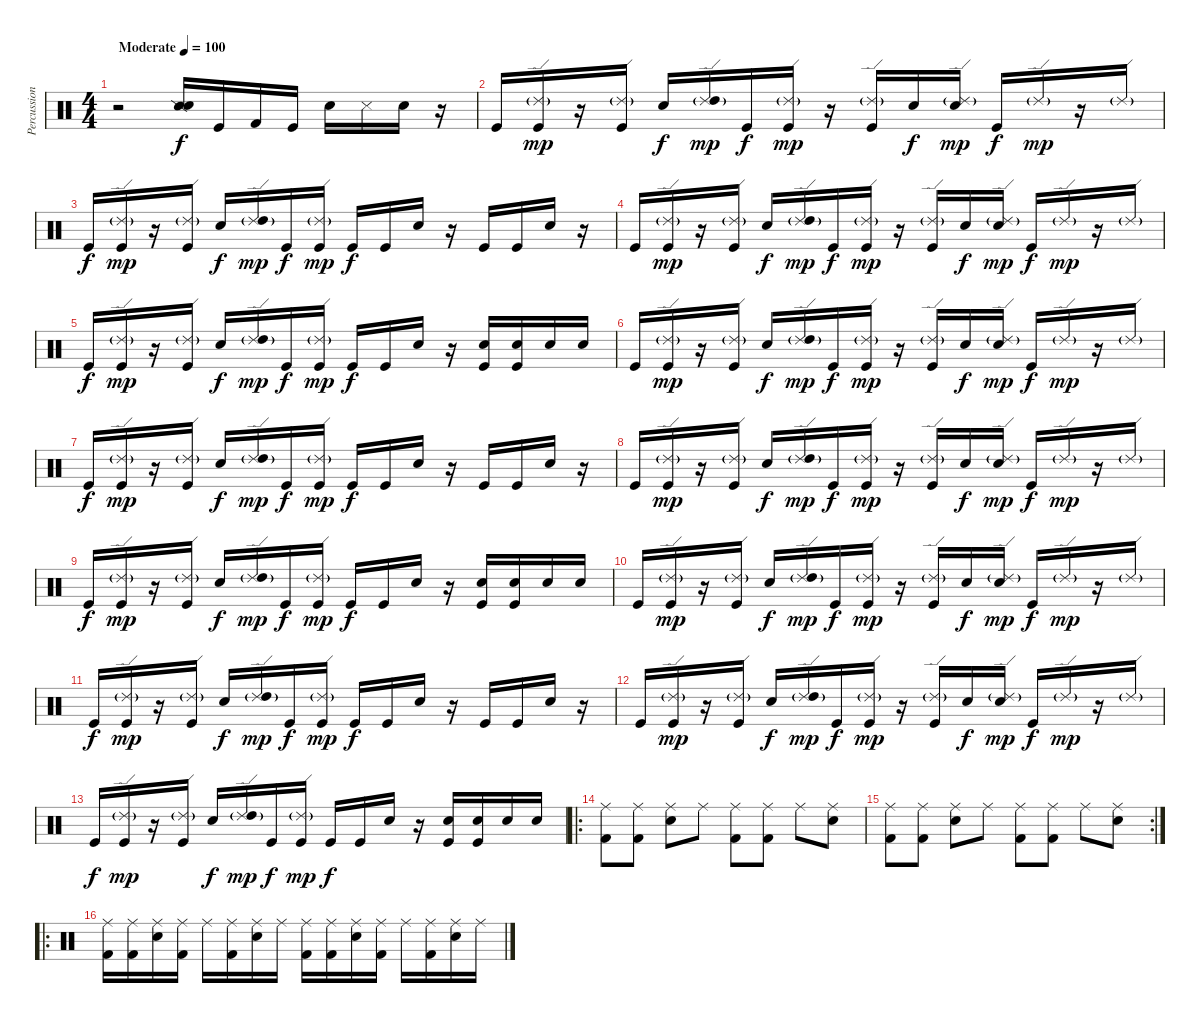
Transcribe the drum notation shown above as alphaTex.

\track ("Percussions" "Percussion") {instrument percussion}
\staff {score}
\articulation defaults
\ts (4 4)
\tempo (100 "Moderate")
\clef neutral
\ks c
r.2{dy f volume 7} ("Snare (side stick) 2" "Snare (hit) 2").16 "Kick (hit)".16 "Kick (hit) 2".16 "Kick (hit)".16 "Snare (hit) 2".16 "Snare (side stick) 3".16 "Hand Clap (hit)".16 r.16 |
"Kick (hit)".16 ("Ride (edge) 2"{g} "Kick (hit)").16{dy mp} r.16 ("Ride (edge) 2"{g} "Kick (hit)").16 "Snare (hit) 2".16{dy f} ("Ride (edge) 2"{g} "High Tom (hit)").16{dy mp} "Kick (hit)".16{dy f} ("Ride (edge) 2"{g} "Kick (hit)").16{dy mp} r.16 ("Ride (edge) 2"{g} "Kick (hit)").16 "Snare (hit) 2".16{dy f} ("Ride (edge) 2"{g} "Snare (hit) 2").16{dy mp} "Kick (hit)".16{dy f} "Ride (edge) 2"{g}.16{dy mp} r.16 "Ride (edge) 2"{g}.16 |
"Kick (hit)".16{dy f} ("Ride (edge) 2"{g} "Kick (hit)").16{dy mp} r.16 ("Ride (edge) 2"{g} "Kick (hit)").16 "Snare (hit) 2".16{dy f} ("Ride (edge) 2"{g} "High Tom (hit)").16{dy mp} "Kick (hit)".16{dy f} ("Ride (edge) 2"{g} "Kick (hit)").16{dy mp} "Kick (hit)".16{dy f} "Kick (hit)".16 "Snare (hit) 2".16 r.16 "Kick (hit)".16 "Kick (hit)".16 "Snare (hit) 2".16 r.16 |
"Kick (hit)".16 ("Ride (edge) 2"{g} "Kick (hit)").16{dy mp} r.16 ("Ride (edge) 2"{g} "Kick (hit)").16 "Snare (hit) 2".16{dy f} ("Ride (edge) 2"{g} "High Tom (hit)").16{dy mp} "Kick (hit)".16{dy f} ("Ride (edge) 2"{g} "Kick (hit)").16{dy mp} r.16 ("Ride (edge) 2"{g} "Kick (hit)").16 "Snare (hit) 2".16{dy f} ("Ride (edge) 2"{g} "Snare (hit) 2").16{dy mp} "Kick (hit)".16{dy f} "Ride (edge) 2"{g}.16{dy mp} r.16 "Ride (edge) 2"{g}.16 |
"Kick (hit)".16{dy f} ("Ride (edge) 2"{g} "Kick (hit)").16{dy mp} r.16 ("Ride (edge) 2"{g} "Kick (hit)").16 "Snare (hit) 2".16{dy f} ("Ride (edge) 2"{g} "High Tom (hit)").16{dy mp} "Kick (hit)".16{dy f} ("Ride (edge) 2"{g} "Kick (hit)").16{dy mp} "Kick (hit)".16{dy f} "Kick (hit)".16 "Snare (hit) 2".16 r.16 ("Electric Snare (hit)" "Kick (hit)").16 ("Electric Snare (hit)" "Kick (hit)").16 "Electric Snare (hit)".16 "Electric Snare (hit)".16 |
"Kick (hit)".16{volume 16} ("Ride (edge) 2"{g} "Kick (hit)").16{dy mp} r.16 ("Ride (edge) 2"{g} "Kick (hit)").16 "Snare (hit) 2".16{dy f} ("Ride (edge) 2"{g} "High Tom (hit)").16{dy mp} "Kick (hit)".16{dy f} ("Ride (edge) 2"{g} "Kick (hit)").16{dy mp} r.16 ("Ride (edge) 2"{g} "Kick (hit)").16 "Snare (hit) 2".16{dy f} ("Ride (edge) 2"{g} "Snare (hit) 2").16{dy mp} "Kick (hit)".16{dy f} "Ride (edge) 2"{g}.16{dy mp} r.16 "Ride (edge) 2"{g}.16 |
"Kick (hit)".16{dy f} ("Ride (edge) 2"{g} "Kick (hit)").16{dy mp} r.16 ("Ride (edge) 2"{g} "Kick (hit)").16 "Snare (hit) 2".16{dy f} ("Ride (edge) 2"{g} "High Tom (hit)").16{dy mp} "Kick (hit)".16{dy f} ("Ride (edge) 2"{g} "Kick (hit)").16{dy mp} "Kick (hit)".16{dy f} "Kick (hit)".16 "Snare (hit) 2".16 r.16 "Kick (hit)".16 "Kick (hit)".16 "Snare (hit) 2".16 r.16 |
"Kick (hit)".16 ("Ride (edge) 2"{g} "Kick (hit)").16{dy mp} r.16 ("Ride (edge) 2"{g} "Kick (hit)").16 "Snare (hit) 2".16{dy f} ("Ride (edge) 2"{g} "High Tom (hit)").16{dy mp} "Kick (hit)".16{dy f} ("Ride (edge) 2"{g} "Kick (hit)").16{dy mp} r.16 ("Ride (edge) 2"{g} "Kick (hit)").16 "Snare (hit) 2".16{dy f} ("Ride (edge) 2"{g} "Snare (hit) 2").16{dy mp} "Kick (hit)".16{dy f} "Ride (edge) 2"{g}.16{dy mp} r.16 "Ride (edge) 2"{g}.16 |
"Kick (hit)".16{dy f} ("Ride (edge) 2"{g} "Kick (hit)").16{dy mp} r.16 ("Ride (edge) 2"{g} "Kick (hit)").16 "Snare (hit) 2".16{dy f} ("Ride (edge) 2"{g} "High Tom (hit)").16{dy mp} "Kick (hit)".16{dy f} ("Ride (edge) 2"{g} "Kick (hit)").16{dy mp} "Kick (hit)".16{dy f} "Kick (hit)".16 "Snare (hit) 2".16 r.16 ("Electric Snare (hit)" "Kick (hit)").16 ("Electric Snare (hit)" "Kick (hit)").16 "Electric Snare (hit)".16 "Electric Snare (hit)".16 |
"Kick (hit)".16 ("Ride (edge) 2"{g} "Kick (hit)").16{dy mp} r.16 ("Ride (edge) 2"{g} "Kick (hit)").16 "Snare (hit) 2".16{dy f} ("Ride (edge) 2"{g} "High Tom (hit)").16{dy mp} "Kick (hit)".16{dy f} ("Ride (edge) 2"{g} "Kick (hit)").16{dy mp} r.16 ("Ride (edge) 2"{g} "Kick (hit)").16 "Snare (hit) 2".16{dy f} ("Ride (edge) 2"{g} "Snare (hit) 2").16{dy mp} "Kick (hit)".16{dy f} "Ride (edge) 2"{g}.16{dy mp} r.16 "Ride (edge) 2"{g}.16 |
"Kick (hit)".16{dy f} ("Ride (edge) 2"{g} "Kick (hit)").16{dy mp} r.16 ("Ride (edge) 2"{g} "Kick (hit)").16 "Snare (hit) 2".16{dy f} ("Ride (edge) 2"{g} "High Tom (hit)").16{dy mp} "Kick (hit)".16{dy f} ("Ride (edge) 2"{g} "Kick (hit)").16{dy mp} "Kick (hit)".16{dy f} "Kick (hit)".16 "Snare (hit) 2".16 r.16 "Kick (hit)".16 "Kick (hit)".16 "Snare (hit) 2".16 r.16 |
"Kick (hit)".16 ("Ride (edge) 2"{g} "Kick (hit)").16{dy mp} r.16 ("Ride (edge) 2"{g} "Kick (hit)").16 "Snare (hit) 2".16{dy f} ("Ride (edge) 2"{g} "High Tom (hit)").16{dy mp} "Kick (hit)".16{dy f} ("Ride (edge) 2"{g} "Kick (hit)").16{dy mp} r.16 ("Ride (edge) 2"{g} "Kick (hit)").16 "Snare (hit) 2".16{dy f} ("Ride (edge) 2"{g} "Snare (hit) 2").16{dy mp} "Kick (hit)".16{dy f} "Ride (edge) 2"{g}.16{dy mp} r.16 "Ride (edge) 2"{g}.16 |
"Kick (hit)".16{dy f} ("Ride (edge) 2"{g} "Kick (hit)").16{dy mp} r.16 ("Ride (edge) 2"{g} "Kick (hit)").16 "Snare (hit) 2".16{dy f} ("Ride (edge) 2"{g} "High Tom (hit)").16{dy mp} "Kick (hit)".16{dy f} ("Ride (edge) 2"{g} "Kick (hit)").16{dy mp} "Kick (hit)".16{dy f} "Kick (hit)".16 "Snare (hit) 2".16 r.16 ("Electric Snare (hit)" "Kick (hit)").16 ("Electric Snare (hit)" "Kick (hit)").16 "Electric Snare (hit)".16 "Electric Snare (hit)".16 |
\ro
("Ride (middle)" "Kick (hit) 2").8 ("Ride (middle)" "Kick (hit) 2").8 ("Ride (middle)" "Snare (hit) 2").8 "Ride (middle)".8 ("Ride (middle)" "Kick (hit) 2").8 ("Ride (middle)" "Kick (hit) 2").8 "Ride (middle)".8 ("Ride (middle)" "Snare (hit) 2").8 |
\rc 2
("Ride (middle)" "Kick (hit) 2").8 ("Ride (middle)" "Kick (hit) 2").8 ("Ride (middle)" "Snare (hit) 2").8 "Ride (middle)".8 ("Ride (middle)" "Kick (hit) 2").8 ("Ride (middle)" "Kick (hit) 2").8 "Ride (middle)".8 ("Ride (middle)" "Snare (hit) 2").8 |
\ro
("Ride (middle)" "Kick (hit) 2").16 ("Ride (middle)" "Kick (hit) 2").16 ("Ride (middle)" "Snare (hit) 2").16 ("Ride (middle)" "Kick (hit) 2").16 "Ride (middle)".16 ("Ride (middle)" "Kick (hit) 2").16 ("Ride (middle)" "Snare (hit) 2").16 "Ride (middle)".16 ("Ride (middle)" "Kick (hit) 2").16 ("Ride (middle)" "Kick (hit) 2").16 ("Ride (middle)" "Snare (hit) 2").16 ("Ride (middle)" "Kick (hit) 2").16 "Ride (middle)".16 ("Ride (middle)" "Kick (hit) 2").16 ("Ride (middle)" "Snare (hit) 2").16 "Ride (middle)".16
